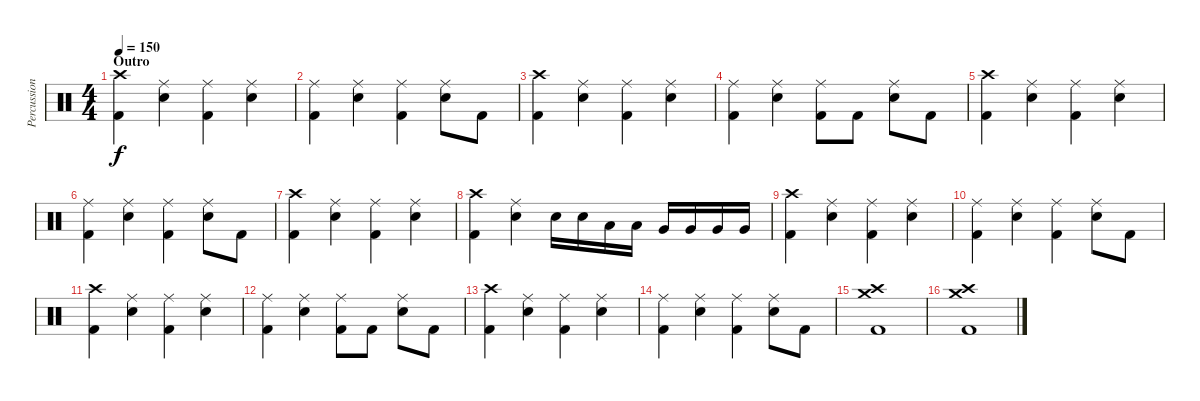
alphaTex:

\track ("Percussion" "Percussion") {instrument percussion}
\staff {score}
\articulation defaults
\ts (4 4)
\section ("" "Outro")
\tempo 150
\clef neutral
\ks c
("Crash high (hit)" "Kick (hit) 2").4{dy f} ("Ride (middle)" "Electric Snare (hit)").4 ("Ride (middle)" "Kick (hit) 2").4 ("Ride (middle)" "Electric Snare (hit)").4 |
("Ride (middle)" "Kick (hit) 2").4 ("Ride (middle)" "Electric Snare (hit)").4 ("Ride (middle)" "Kick (hit) 2").4 ("Ride (middle)" "Electric Snare (hit)").8 "Kick (hit) 2".8 |
("Crash high (hit)" "Kick (hit) 2").4 ("Ride (middle)" "Electric Snare (hit)").4 ("Ride (middle)" "Kick (hit) 2").4 ("Ride (middle)" "Electric Snare (hit)").4 |
("Ride (middle)" "Kick (hit) 2").4 ("Ride (middle)" "Electric Snare (hit)").4 ("Ride (middle)" "Kick (hit) 2").8 "Kick (hit) 2".8 ("Ride (middle)" "Electric Snare (hit)").8 "Kick (hit) 2".8 |
("Crash high (hit)" "Kick (hit) 2").4 ("Ride (middle)" "Electric Snare (hit)").4 ("Ride (middle)" "Kick (hit) 2").4 ("Ride (middle)" "Electric Snare (hit)").4 |
("Ride (middle)" "Kick (hit) 2").4 ("Ride (middle)" "Electric Snare (hit)").4 ("Ride (middle)" "Kick (hit) 2").4 ("Ride (middle)" "Electric Snare (hit)").8 "Kick (hit) 2".8 |
("Crash high (hit)" "Kick (hit) 2").4 ("Ride (middle)" "Electric Snare (hit)").4 ("Ride (middle)" "Kick (hit) 2").4 ("Ride (middle)" "Electric Snare (hit)").4 |
("Crash high (hit)" "Kick (hit) 2").4 ("Ride (middle)" "Electric Snare (hit)").4 "Electric Snare (hit)".16 "Electric Snare (hit)".16 "Low Tom (hit)".16 "Low Tom (hit)".16 "Very Low Tom (hit)".16 "Very Low Tom (hit)".16 "Very Low Tom (hit)".16 "Very Low Tom (hit)".16 |
("Crash high (hit)" "Kick (hit) 2").4 ("Ride (middle)" "Electric Snare (hit)").4 ("Ride (middle)" "Kick (hit) 2").4 ("Ride (middle)" "Electric Snare (hit)").4 |
("Ride (middle)" "Kick (hit) 2").4 ("Ride (middle)" "Electric Snare (hit)").4 ("Ride (middle)" "Kick (hit) 2").4 ("Ride (middle)" "Electric Snare (hit)").8 "Kick (hit) 2".8 |
("Crash high (hit)" "Kick (hit) 2").4 ("Ride (middle)" "Electric Snare (hit)").4 ("Ride (middle)" "Kick (hit) 2").4 ("Ride (middle)" "Electric Snare (hit)").4 |
("Ride (middle)" "Kick (hit) 2").4 ("Ride (middle)" "Electric Snare (hit)").4 ("Ride (middle)" "Kick (hit) 2").8 "Kick (hit) 2".8 ("Ride (middle)" "Electric Snare (hit)").8 "Kick (hit) 2".8 |
("Crash high (hit)" "Kick (hit) 2").4 ("Ride (middle)" "Electric Snare (hit)").4 ("Ride (middle)" "Kick (hit) 2").4 ("Ride (middle)" "Electric Snare (hit)").4 |
("Ride (middle)" "Kick (hit) 2").4 ("Ride (middle)" "Electric Snare (hit)").4 ("Ride (middle)" "Kick (hit) 2").4 ("Ride (middle)" "Electric Snare (hit)").8 "Kick (hit) 2".8 |
("Crash high (hit)" "Crash medium (hit)" "Kick (hit) 2").1 |
("Crash high (hit)" "Crash medium (hit)" "Kick (hit) 2").1
